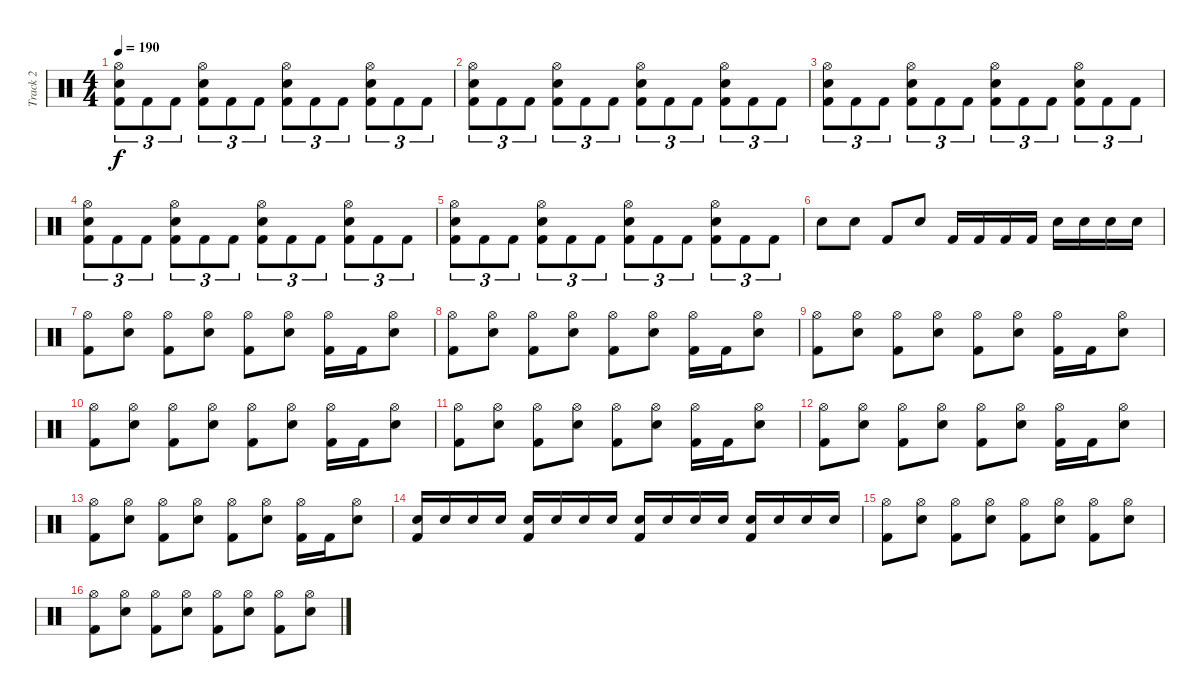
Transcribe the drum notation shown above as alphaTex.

\track ("Track 2" "Track 2") {instrument percussion}
\staff {score}
\articulation defaults
\ts (4 4)
\tempo 190
\clef neutral
\ks c
("Hi-Hat (open)" "Snare (hit) 2" "Kick (hit) 2").8{tu (3 2) dy f} "Kick (hit) 2".8{tu (3 2)} "Kick (hit) 2".8{tu (3 2)} ("Hi-Hat (open)" "Snare (hit) 2" "Kick (hit) 2").8{tu (3 2)} "Kick (hit) 2".8{tu (3 2)} "Kick (hit) 2".8{tu (3 2)} ("Hi-Hat (open)" "Snare (hit) 2" "Kick (hit) 2").8{tu (3 2)} "Kick (hit) 2".8{tu (3 2)} "Kick (hit) 2".8{tu (3 2)} ("Hi-Hat (open)" "Snare (hit) 2" "Kick (hit) 2").8{tu (3 2)} "Kick (hit) 2".8{tu (3 2)} "Kick (hit) 2".8{tu (3 2)} |
("Hi-Hat (open)" "Snare (hit) 2" "Kick (hit) 2").8{tu (3 2)} "Kick (hit) 2".8{tu (3 2)} "Kick (hit) 2".8{tu (3 2)} ("Hi-Hat (open)" "Snare (hit) 2" "Kick (hit) 2").8{tu (3 2)} "Kick (hit) 2".8{tu (3 2)} "Kick (hit) 2".8{tu (3 2)} ("Hi-Hat (open)" "Snare (hit) 2" "Kick (hit) 2").8{tu (3 2)} "Kick (hit) 2".8{tu (3 2)} "Kick (hit) 2".8{tu (3 2)} ("Hi-Hat (open)" "Snare (hit) 2" "Kick (hit) 2").8{tu (3 2)} "Kick (hit) 2".8{tu (3 2)} "Kick (hit) 2".8{tu (3 2)} |
("Hi-Hat (open)" "Snare (hit) 2" "Kick (hit) 2").8{tu (3 2)} "Kick (hit) 2".8{tu (3 2)} "Kick (hit) 2".8{tu (3 2)} ("Hi-Hat (open)" "Snare (hit) 2" "Kick (hit) 2").8{tu (3 2)} "Kick (hit) 2".8{tu (3 2)} "Kick (hit) 2".8{tu (3 2)} ("Hi-Hat (open)" "Snare (hit) 2" "Kick (hit) 2").8{tu (3 2)} "Kick (hit) 2".8{tu (3 2)} "Kick (hit) 2".8{tu (3 2)} ("Hi-Hat (open)" "Snare (hit) 2" "Kick (hit) 2").8{tu (3 2)} "Kick (hit) 2".8{tu (3 2)} "Kick (hit) 2".8{tu (3 2)} |
("Hi-Hat (open)" "Snare (hit) 2" "Kick (hit) 2").8{tu (3 2)} "Kick (hit) 2".8{tu (3 2)} "Kick (hit) 2".8{tu (3 2)} ("Hi-Hat (open)" "Snare (hit) 2" "Kick (hit) 2").8{tu (3 2)} "Kick (hit) 2".8{tu (3 2)} "Kick (hit) 2".8{tu (3 2)} ("Hi-Hat (open)" "Snare (hit) 2" "Kick (hit) 2").8{tu (3 2)} "Kick (hit) 2".8{tu (3 2)} "Kick (hit) 2".8{tu (3 2)} ("Hi-Hat (open)" "Snare (hit) 2" "Kick (hit) 2").8{tu (3 2)} "Kick (hit) 2".8{tu (3 2)} "Kick (hit) 2".8{tu (3 2)} |
("Hi-Hat (open)" "Snare (hit) 2" "Kick (hit) 2").8{tu (3 2)} "Kick (hit) 2".8{tu (3 2)} "Kick (hit) 2".8{tu (3 2)} ("Hi-Hat (open)" "Snare (hit) 2" "Kick (hit) 2").8{tu (3 2)} "Kick (hit) 2".8{tu (3 2)} "Kick (hit) 2".8{tu (3 2)} ("Hi-Hat (open)" "Snare (hit) 2" "Kick (hit) 2").8{tu (3 2)} "Kick (hit) 2".8{tu (3 2)} "Kick (hit) 2".8{tu (3 2)} ("Hi-Hat (open)" "Snare (hit) 2" "Kick (hit) 2").8{tu (3 2)} "Kick (hit) 2".8{tu (3 2)} "Kick (hit) 2".8{tu (3 2)} |
"Snare (hit) 2".8 "Snare (hit) 2".8 "Kick (hit) 2".8 "Snare (hit) 2".8 "Kick (hit) 2".16 "Kick (hit) 2".16 "Kick (hit) 2".16 "Kick (hit) 2".16 "Snare (hit) 2".16 "Snare (hit) 2".16 "Snare (hit) 2".16 "Snare (hit) 2".16 |
("Hi-Hat (open)" "Kick (hit) 2").8 ("Hi-Hat (open)" "Snare (hit) 2").8 ("Hi-Hat (open)" "Kick (hit) 2").8 ("Hi-Hat (open)" "Snare (hit) 2").8 ("Hi-Hat (open)" "Kick (hit) 2").8 ("Hi-Hat (open)" "Snare (hit) 2").8 ("Hi-Hat (open)" "Kick (hit) 2").16 "Kick (hit) 2".16 ("Hi-Hat (open)" "Snare (hit) 2").8 |
("Hi-Hat (open)" "Kick (hit) 2").8 ("Hi-Hat (open)" "Snare (hit) 2").8 ("Hi-Hat (open)" "Kick (hit) 2").8 ("Hi-Hat (open)" "Snare (hit) 2").8 ("Hi-Hat (open)" "Kick (hit) 2").8 ("Hi-Hat (open)" "Snare (hit) 2").8 ("Hi-Hat (open)" "Kick (hit) 2").16 "Kick (hit) 2".16 ("Hi-Hat (open)" "Snare (hit) 2").8 |
("Hi-Hat (open)" "Kick (hit) 2").8 ("Hi-Hat (open)" "Snare (hit) 2").8 ("Hi-Hat (open)" "Kick (hit) 2").8 ("Hi-Hat (open)" "Snare (hit) 2").8 ("Hi-Hat (open)" "Kick (hit) 2").8 ("Hi-Hat (open)" "Snare (hit) 2").8 ("Hi-Hat (open)" "Kick (hit) 2").16 "Kick (hit) 2".16 ("Hi-Hat (open)" "Snare (hit) 2").8 |
("Hi-Hat (open)" "Kick (hit) 2").8 ("Hi-Hat (open)" "Snare (hit) 2").8 ("Hi-Hat (open)" "Kick (hit) 2").8 ("Hi-Hat (open)" "Snare (hit) 2").8 ("Hi-Hat (open)" "Kick (hit) 2").8 ("Hi-Hat (open)" "Snare (hit) 2").8 ("Hi-Hat (open)" "Kick (hit) 2").16 "Kick (hit) 2".16 ("Hi-Hat (open)" "Snare (hit) 2").8 |
("Hi-Hat (open)" "Kick (hit) 2").8 ("Hi-Hat (open)" "Snare (hit) 2").8 ("Hi-Hat (open)" "Kick (hit) 2").8 ("Hi-Hat (open)" "Snare (hit) 2").8 ("Hi-Hat (open)" "Kick (hit) 2").8 ("Hi-Hat (open)" "Snare (hit) 2").8 ("Hi-Hat (open)" "Kick (hit) 2").16 "Kick (hit) 2".16 ("Hi-Hat (open)" "Snare (hit) 2").8 |
("Hi-Hat (open)" "Kick (hit) 2").8 ("Hi-Hat (open)" "Snare (hit) 2").8 ("Hi-Hat (open)" "Kick (hit) 2").8 ("Hi-Hat (open)" "Snare (hit) 2").8 ("Hi-Hat (open)" "Kick (hit) 2").8 ("Hi-Hat (open)" "Snare (hit) 2").8 ("Hi-Hat (open)" "Kick (hit) 2").16 "Kick (hit) 2".16 ("Hi-Hat (open)" "Snare (hit) 2").8 |
("Hi-Hat (open)" "Kick (hit) 2").8 ("Hi-Hat (open)" "Snare (hit) 2").8 ("Hi-Hat (open)" "Kick (hit) 2").8 ("Hi-Hat (open)" "Snare (hit) 2").8 ("Hi-Hat (open)" "Kick (hit) 2").8 ("Hi-Hat (open)" "Snare (hit) 2").8 ("Hi-Hat (open)" "Kick (hit) 2").16 "Kick (hit) 2".16 ("Hi-Hat (open)" "Snare (hit) 2").8 |
("Snare (hit) 2" "Kick (hit) 2").16 "Snare (hit) 2".16 "Snare (hit) 2".16 "Snare (hit) 2".16 ("Snare (hit) 2" "Kick (hit) 2").16 "Snare (hit) 2".16 "Snare (hit) 2".16 "Snare (hit) 2".16 ("Snare (hit) 2" "Kick (hit) 2").16 "Snare (hit) 2".16 "Snare (hit) 2".16 "Snare (hit) 2".16 ("Snare (hit) 2" "Kick (hit) 2").16 "Snare (hit) 2".16 "Snare (hit) 2".16 "Snare (hit) 2".16 |
("Hi-Hat (open)" "Kick (hit) 2").8 ("Hi-Hat (open)" "Snare (hit) 2").8 ("Hi-Hat (open)" "Kick (hit) 2").8 ("Hi-Hat (open)" "Snare (hit) 2").8 ("Hi-Hat (open)" "Kick (hit) 2").8 ("Hi-Hat (open)" "Snare (hit) 2").8 ("Hi-Hat (open)" "Kick (hit) 2").8 ("Hi-Hat (open)" "Snare (hit) 2").8 |
("Hi-Hat (open)" "Kick (hit) 2").8 ("Hi-Hat (open)" "Snare (hit) 2").8 ("Hi-Hat (open)" "Kick (hit) 2").8 ("Hi-Hat (open)" "Snare (hit) 2").8 ("Hi-Hat (open)" "Kick (hit) 2").8 ("Hi-Hat (open)" "Snare (hit) 2").8 ("Hi-Hat (open)" "Kick (hit) 2").8 ("Hi-Hat (open)" "Snare (hit) 2").8
